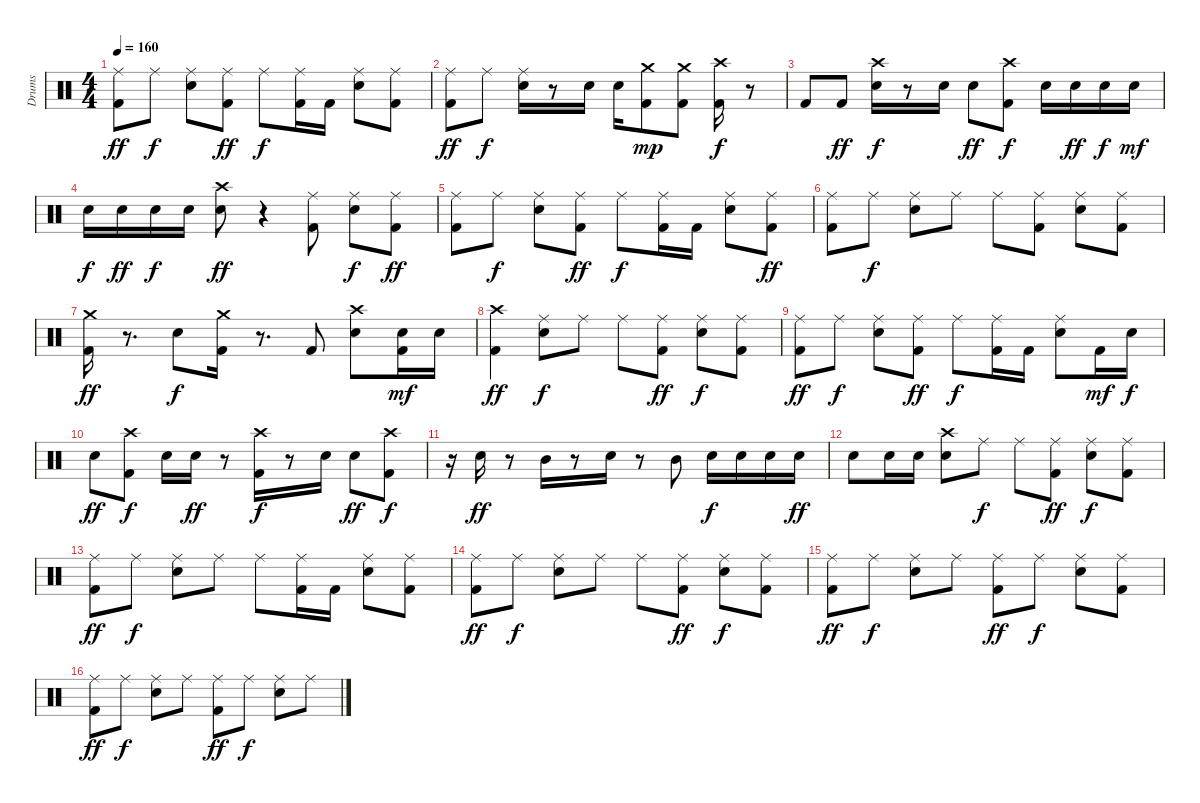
\track ("Drums" "Drums") {instrument percussion}
\staff {score}
\articulation defaults
\ts (4 4)
\tempo 160
\clef neutral
\ks c
("Ride (middle)" "Kick (hit) 2").8{dy ff} "Ride (middle)".8{dy f} ("Ride (middle)" "Snare (hit) 2").8 ("Ride (middle)" "Kick (hit) 2").8{dy ff} "Ride (middle)".8{dy f} ("Ride (middle)" "Kick (hit) 2").16 "Kick (hit) 2".16 ("Ride (middle)" "Snare (hit) 2").8 ("Ride (middle)" "Kick (hit) 2").8 |
("Ride (middle)" "Kick (hit) 2").8{dy ff} "Ride (middle)".8{dy f} ("Ride (middle)" "Snare (hit) 2").16 r.8 "Snare (hit) 2".16 "Snare (hit) 2".16 ("Crash medium (hit)" "Kick (hit) 2").8{dy mp} ("Crash medium (hit)" "Kick (hit) 2").8 ("Crash high (hit)" "Kick (hit) 2").16{dy f} r.8 |
"Kick (hit) 2".8 "Kick (hit) 2".8{dy ff} ("Crash high (hit)" "Snare (hit) 2").16{dy f} r.8 "Snare (hit) 2".16 "Snare (hit) 2".8{dy ff} ("Crash high (hit)" "Kick (hit) 2").8{dy f} "Snare (hit) 2".16 "Snare (hit) 2".16{dy ff} "Snare (hit) 2".16{dy f} "Snare (hit) 2".16{dy mf} |
"Snare (hit) 2".16{dy f} "Snare (hit) 2".16{dy ff} "Snare (hit) 2".16{dy f} "Snare (hit) 2".16 ("Crash high (hit)" "Snare (hit) 2").8{dy ff} r.4 ("Ride (middle)" "Kick (hit) 2").8 ("Ride (middle)" "Snare (hit) 2").8{dy f} ("Ride (middle)" "Kick (hit) 2").8{dy ff} |
("Ride (middle)" "Kick (hit) 2").8 "Ride (middle)".8{dy f} ("Ride (middle)" "Snare (hit) 2").8 ("Ride (middle)" "Kick (hit) 2").8{dy ff} "Ride (middle)".8{dy f} ("Ride (middle)" "Kick (hit) 2").16 "Kick (hit) 2".16 ("Ride (middle)" "Snare (hit) 2").8 ("Ride (middle)" "Kick (hit) 2").8{dy ff} |
("Ride (middle)" "Kick (hit) 2").8 "Ride (middle)".8{dy f} ("Ride (middle)" "Snare (hit) 2").8 "Ride (middle)".8 "Ride (middle)".8 ("Ride (middle)" "Kick (hit) 2").8 ("Ride (middle)" "Snare (hit) 2").8 ("Ride (middle)" "Kick (hit) 2").8 |
("Crash medium (hit)" "Kick (hit) 2").16{dy ff} r.8{d} "Snare (hit) 2".8{dy f} ("Crash medium (hit)" "Kick (hit) 2").16 r.8{d} "Kick (hit) 2".8 ("Crash high (hit)" "Snare (hit) 2").8 ("Snare (hit) 2" "Kick (hit) 2").16{dy mf} "Snare (hit) 2".16 |
("Crash high (hit)" "Kick (hit) 2").4{dy ff} ("Ride (middle)" "Snare (hit) 2").8{dy f} "Ride (middle)".8 "Ride (middle)".8 ("Ride (middle)" "Kick (hit) 2").8{dy ff} ("Ride (middle)" "Snare (hit) 2").8{dy f} ("Ride (middle)" "Kick (hit) 2").8 |
("Ride (middle)" "Kick (hit) 2").8{dy ff} "Ride (middle)".8{dy f} ("Ride (middle)" "Snare (hit) 2").8 ("Ride (middle)" "Kick (hit) 2").8{dy ff} "Ride (middle)".8{dy f} ("Ride (middle)" "Kick (hit) 2").16 "Kick (hit) 2".16 ("Ride (middle)" "Snare (hit) 2").8 "Kick (hit) 2".16{dy mf} "Snare (hit) 2".16{dy f} |
"Snare (hit) 2".8{dy ff} ("Kick (hit) 2" "Crash high (hit)").8{dy f} "Snare (hit) 2".16 "Snare (hit) 2".16{dy ff} r.8 ("Kick (hit) 2" "Crash high (hit)").16{dy f} r.8 "Snare (hit) 2".16 "Snare (hit) 2".8{dy ff} ("Kick (hit) 2" "Crash high (hit)").8{dy f} |
r.16 "Snare (hit) 2".16{dy ff} r.8 "Mid Tom (hit)".16 r.8 "Snare (hit) 2".16 r.8 "Mid Tom (hit)".8 "Snare (hit) 2".16{dy f} "Snare (hit) 2".16 "Snare (hit) 2".16 "Snare (hit) 2".16{dy ff} |
"Snare (hit) 2".8 "Snare (hit) 2".16 "Snare (hit) 2".16 ("Crash high (hit)" "Snare (hit) 2").8 "Ride (middle)".8{dy f} "Ride (middle)".8 ("Ride (middle)" "Kick (hit) 2").8{dy ff} ("Ride (middle)" "Snare (hit) 2").8{dy f} ("Ride (middle)" "Kick (hit) 2").8 |
("Ride (middle)" "Kick (hit) 2").8{dy ff} "Ride (middle)".8{dy f} ("Ride (middle)" "Snare (hit) 2").8 "Ride (middle)".8 "Ride (middle)".8 ("Ride (middle)" "Kick (hit) 2").16 "Kick (hit) 2".16 ("Ride (middle)" "Snare (hit) 2").8 ("Ride (middle)" "Kick (hit) 2").8 |
("Ride (middle)" "Kick (hit) 2").8{dy ff} "Ride (middle)".8{dy f} ("Ride (middle)" "Snare (hit) 2").8 "Ride (middle)".8 "Ride (middle)".8 ("Ride (middle)" "Kick (hit) 2").8{dy ff} ("Ride (middle)" "Snare (hit) 2").8{dy f} ("Ride (middle)" "Kick (hit) 2").8 |
("Ride (middle)" "Kick (hit) 2").8{dy ff} "Ride (middle)".8{dy f} ("Ride (middle)" "Snare (hit) 2").8 "Ride (middle)".8 ("Ride (middle)" "Kick (hit) 2").8{dy ff} "Ride (middle)".8{dy f} ("Ride (middle)" "Snare (hit) 2").8 ("Ride (middle)" "Kick (hit) 2").8 |
("Ride (middle)" "Kick (hit) 2").8{dy ff} "Ride (middle)".8{dy f} ("Ride (middle)" "Snare (hit) 2").8 "Ride (middle)".8 ("Ride (middle)" "Kick (hit) 2").8{dy ff} "Ride (middle)".8{dy f} ("Ride (middle)" "Snare (hit) 2").8 "Ride (middle)".8
